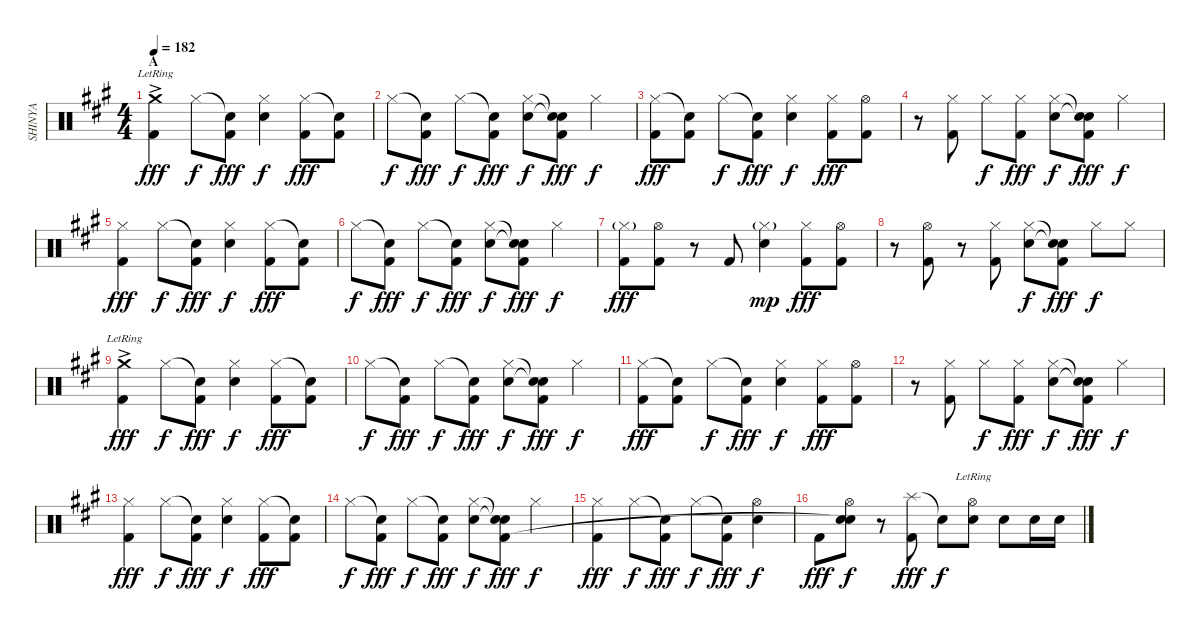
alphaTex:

\track ("SHINYA" "SHINYA") {instrument percussion}
\staff {score}
\articulation defaults
\ts (4 4)
\section ("" "A")
\tempo 182
\clef neutral
\ks a
("Crash medium (hit)"{ac lr} "Kick (hit) 2").4{dy fff} "Hi-Hat (closed)".8{dy f} ("Snare (hit)"{t} "Kick (hit) 2").8{dy fff} ("Hi-Hat (closed)" "Electric Snare (hit)").4{dy f} ("Hi-Hat (closed)" "Kick (hit) 2").8{dy fff} ("Snare (hit)"{t} "Kick (hit) 2").8 |
"Hi-Hat (closed)".8{dy f} ("Snare (hit)"{t} "Kick (hit) 2").8{dy fff} "Hi-Hat (closed)".8{dy f} ("Snare (hit)"{t} "Kick (hit) 2").8{dy fff} ("Hi-Hat (closed)" "Electric Snare (hit)").8{dy f} ("Snare (hit)"{t} "Snare (hit)"{t} "Kick (hit) 2").8{dy fff} "Hi-Hat (closed)".4{dy f} |
("Hi-Hat (closed)" "Kick (hit) 2").8{dy fff} ("Snare (hit)"{t} "Kick (hit) 2").8 "Hi-Hat (closed)".8{dy f} ("Snare (hit)"{t} "Kick (hit) 2").8{dy fff} ("Hi-Hat (closed)" "Electric Snare (hit)").4{dy f} ("Hi-Hat (closed)" "Kick (hit) 2").8{dy fff} ("Hi-Hat (open)" "Kick (hit) 2").8 |
r.8 ("Hi-Hat (closed)" "Kick (hit) 2").8 "Hi-Hat (closed)".8{dy f} ("Hi-Hat (closed)" "Kick (hit) 2").8{dy fff} ("Hi-Hat (closed)" "Electric Snare (hit)").8{dy f} ("Snare (hit)"{t} "Snare (hit)"{t} "Kick (hit) 2").8{dy fff} "Hi-Hat (closed)".4{dy f} |
("Hi-Hat (closed)" "Kick (hit) 2").4{dy fff} "Hi-Hat (closed)".8{dy f} ("Snare (hit)"{t} "Kick (hit) 2").8{dy fff} ("Hi-Hat (closed)" "Electric Snare (hit)").4{dy f} ("Hi-Hat (closed)" "Kick (hit) 2").8{dy fff} ("Snare (hit)"{t} "Kick (hit) 2").8 |
"Hi-Hat (closed)".8{dy f} ("Snare (hit)"{t} "Kick (hit) 2").8{dy fff} "Hi-Hat (closed)".8{dy f} ("Snare (hit)"{t} "Kick (hit) 2").8{dy fff} ("Hi-Hat (closed)" "Electric Snare (hit)").8{dy f} ("Snare (hit)"{t} "Snare (hit)"{t} "Kick (hit) 2").8{dy fff} "Hi-Hat (closed)".4{dy f} |
("Hi-Hat (closed)"{g} "Kick (hit) 2").8{dy fff} ("Hi-Hat (open)" "Kick (hit) 2").8 r.8 "Kick (hit) 2".8 ("Hi-Hat (closed)"{g} "Electric Snare (hit)").4{dy mp} ("Hi-Hat (closed)" "Kick (hit) 2").8{dy fff} ("Hi-Hat (open)" "Kick (hit) 2").8 |
r.8 ("Hi-Hat (open)" "Kick (hit) 2").8 r.8 ("Hi-Hat (closed)" "Kick (hit) 2").8 ("Hi-Hat (closed)" "Electric Snare (hit)").8{dy f} ("Snare (hit)"{t} "Snare (hit)"{t} "Kick (hit) 2").8{dy fff} "Hi-Hat (closed)".8{dy f} "Hi-Hat (closed)".8 |
("Crash medium (hit)"{ac lr} "Kick (hit) 2").4{dy fff} "Hi-Hat (closed)".8{dy f} ("Snare (hit)"{t} "Kick (hit) 2").8{dy fff} ("Hi-Hat (closed)" "Electric Snare (hit)").4{dy f} ("Hi-Hat (closed)" "Kick (hit) 2").8{dy fff} ("Snare (hit)"{t} "Kick (hit) 2").8 |
"Hi-Hat (closed)".8{dy f} ("Snare (hit)"{t} "Kick (hit) 2").8{dy fff} "Hi-Hat (closed)".8{dy f} ("Snare (hit)"{t} "Kick (hit) 2").8{dy fff} ("Hi-Hat (closed)" "Electric Snare (hit)").8{dy f} ("Snare (hit)"{t} "Snare (hit)"{t} "Kick (hit) 2").8{dy fff} "Hi-Hat (closed)".4{dy f} |
("Hi-Hat (closed)" "Kick (hit) 2").8{dy fff} ("Snare (hit)"{t} "Kick (hit) 2").8 "Hi-Hat (closed)".8{dy f} ("Snare (hit)"{t} "Kick (hit) 2").8{dy fff} ("Hi-Hat (closed)" "Electric Snare (hit)").4{dy f} ("Hi-Hat (closed)" "Kick (hit) 2").8{dy fff} ("Hi-Hat (open)" "Kick (hit) 2").8 |
r.8 ("Hi-Hat (closed)" "Kick (hit) 2").8 "Hi-Hat (closed)".8{dy f} ("Hi-Hat (closed)" "Kick (hit) 2").8{dy fff} ("Hi-Hat (closed)" "Electric Snare (hit)").8{dy f} ("Snare (hit)"{t} "Snare (hit)"{t} "Kick (hit) 2").8{dy fff} "Hi-Hat (closed)".4{dy f} |
("Hi-Hat (closed)" "Kick (hit) 2").4{dy fff} "Hi-Hat (closed)".8{dy f} ("Snare (hit)"{t} "Kick (hit) 2").8{dy fff} ("Hi-Hat (closed)" "Electric Snare (hit)").4{dy f} ("Hi-Hat (closed)" "Kick (hit) 2").8{dy fff} ("Snare (hit)"{t} "Kick (hit) 2").8 |
"Hi-Hat (closed)".8{dy f} ("Snare (hit)"{t} "Kick (hit) 2").8{dy fff} "Hi-Hat (closed)".8{dy f} ("Snare (hit)"{t} "Kick (hit) 2").8{dy fff} ("Hi-Hat (closed)" "Electric Snare (hit)").8{dy f} ("Snare (hit)"{t} "Snare (hit)"{t} "Kick (hit) 2").8{dy fff} "Hi-Hat (closed)".4{dy f} |
("Hi-Hat (closed)" "Kick (hit) 2").4{dy fff} "Hi-Hat (closed)".8{dy f} ("Snare (hit)"{t} "Kick (hit) 2").8{dy fff} "Hi-Hat (closed)".8{dy f} ("Snare (hit)"{t} "Kick (hit) 2").8{dy fff} ("Hi-Hat (open)" "Electric Snare (hit)").4{dy f} |
"Kick (hit) 2".8{dy fff} ("Hi-Hat (open)" "Electric Snare (hit)" "Snare (hit)"{t}).8{dy f} r.8 ("Splash (hit)" "Kick (hit) 2").8{dy fff} "Snare (hit)"{t}.8{dy f} ("Hi-Hat (open)"{lr} "Electric Snare (hit)").8 "Electric Snare (hit)".8 "Electric Snare (hit)".16 "Electric Snare (hit)".16
